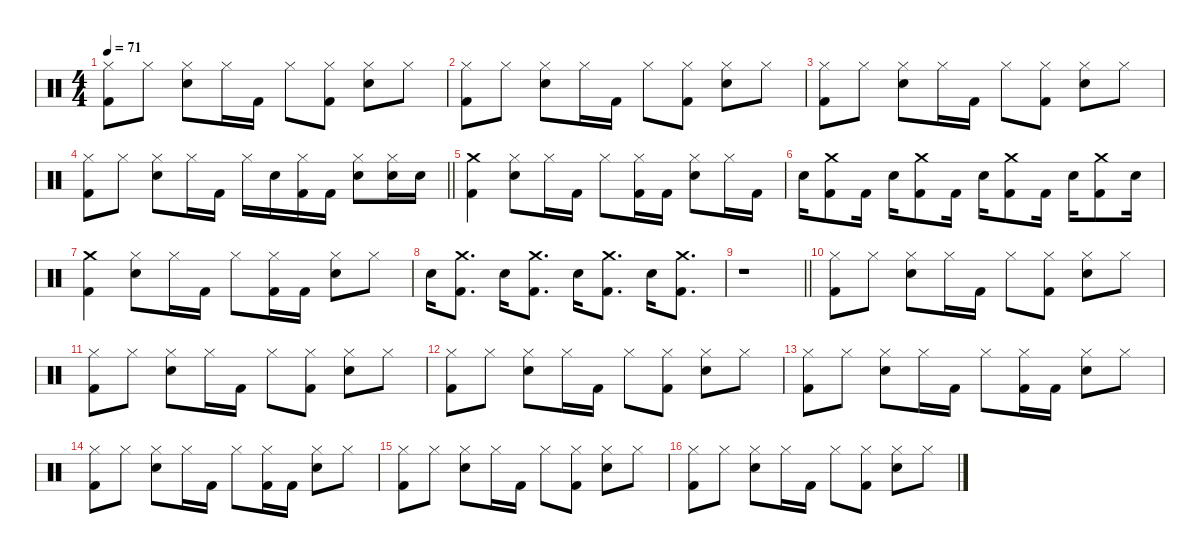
\defaultSystemsLayout 4
\hideDynamics
\bracketExtendMode nobrackets
\singleTrackTrackNamePolicy hidden
\multiTrackTrackNamePolicy hidden
\firstSystemTrackNameMode fullname
\firstSystemTrackNameOrientation horizontal
\otherSystemsTrackNameOrientation horizontal
\track ("Drums" "drm.") {instrument percussion}
\staff {score}
\articulation defaults
\ts (4 4)
\tempo 71
\clef neutral
\ks c
("Hi-Hat (closed)" "Kick (hit) 2").8{dy f beam Down} "Hi-Hat (closed)".8{beam Down} ("Hi-Hat (closed)" "Snare (hit) 2").8{beam Down} "Hi-Hat (closed)".16{beam Down} "Kick (hit) 2".16{beam Down} "Hi-Hat (closed)".8{beam Down} ("Kick (hit) 2" "Hi-Hat (closed)").8{beam Down} ("Hi-Hat (closed)" "Snare (hit) 2").8{beam Down} "Hi-Hat (closed)".8{beam Down} |
("Hi-Hat (closed)" "Kick (hit) 2").8{beam Down} "Hi-Hat (closed)".8{beam Down} ("Hi-Hat (closed)" "Snare (hit) 2").8{beam Down} "Hi-Hat (closed)".16{beam Down} "Kick (hit) 2".16{beam Down} "Hi-Hat (closed)".8{beam Down} ("Kick (hit) 2" "Hi-Hat (closed)").8{beam Down} ("Hi-Hat (closed)" "Snare (hit) 2").8{beam Down} "Hi-Hat (closed)".8{beam Down} |
("Kick (hit) 2" "Hi-Hat (closed)").8{beam Down} "Hi-Hat (closed)".8{beam Down} ("Hi-Hat (closed)" "Snare (hit) 2").8{beam Down} "Hi-Hat (closed)".16{beam Down} "Kick (hit) 2".16{beam Down} "Hi-Hat (closed)".8{beam Down} ("Kick (hit) 2" "Hi-Hat (closed)").8{beam Down} ("Snare (hit) 2" "Hi-Hat (closed)").8{beam Down} "Hi-Hat (closed)".8{beam Down} |
\barLineRight lightlight
("Hi-Hat (closed)" "Kick (hit) 2").8{beam Down} "Hi-Hat (closed)".8{beam Down} ("Hi-Hat (closed)" "Snare (hit) 2").8{beam Down} "Hi-Hat (closed)".16{beam Down} "Kick (hit) 2".16{beam Down} "Hi-Hat (closed)".16{beam Down} "Snare (hit) 2".16{beam Down} ("Hi-Hat (closed)" "Kick (hit) 2").16{beam Down} "Kick (hit) 2".16{beam Down} ("Snare (hit) 2" "Hi-Hat (closed)").8{beam Down} ("Hi-Hat (closed)" "Snare (hit) 2").16{beam Down} "Snare (hit) 2".16{beam Down} |
("Crash medium (hit)" "Kick (hit) 2").4{beam Down} ("Snare (hit) 2" "Hi-Hat (closed)").8{beam Down} "Hi-Hat (closed)".16{beam Down} "Kick (hit) 2".16{beam Down} "Hi-Hat (closed)".8{beam Down} ("Hi-Hat (closed)" "Kick (hit) 2").16{beam Down} "Kick (hit) 2".16{beam Down} ("Hi-Hat (closed)" "Snare (hit) 2").8{beam Down} "Hi-Hat (closed)".16{beam Down} "Kick (hit) 2".16{beam Down} |
"Snare (hit) 2".16{beam Down} ("Crash medium (hit)" "Kick (hit) 2").8{beam Down} "Kick (hit) 2".16{beam Down} "Snare (hit) 2".16{beam Down} ("Crash medium (hit)" "Kick (hit) 2").8{beam Down} "Kick (hit) 2".16{beam Down} "Snare (hit) 2".16{beam Down} ("Crash medium (hit)" "Kick (hit) 2").8{beam Down} "Kick (hit) 2".16{beam Down} "Snare (hit) 2".16{beam Down} ("Crash medium (hit)" "Kick (hit) 2").8{beam Down} "Snare (hit) 2".16{beam Down} |
("Crash medium (hit)" "Kick (hit) 2").4{beam Down} ("Hi-Hat (closed)" "Snare (hit) 2").8{beam Down} "Hi-Hat (closed)".16{beam Down} "Kick (hit) 2".16{beam Down} "Hi-Hat (closed)".8{beam Down} ("Kick (hit) 2" "Hi-Hat (closed)").16{beam Down} "Kick (hit) 2".16{beam Down} ("Hi-Hat (closed)" "Snare (hit) 2").8{beam Down} "Hi-Hat (closed)".8{beam Down} |
"Snare (hit) 2".16{beam Down} ("Crash medium (hit)" "Kick (hit) 2").8{d beam Down} "Snare (hit) 2".16{beam Down} ("Crash medium (hit)" "Kick (hit) 2").8{d beam Down} "Snare (hit) 2".16{beam Down} ("Crash medium (hit)" "Kick (hit) 2").8{d beam Down} "Snare (hit) 2".16{beam Down} ("Crash medium (hit)" "Kick (hit) 2").8{d beam Down} |
\barLineRight lightlight
r.1{beam Down} |
("Hi-Hat (closed)" "Kick (hit) 2").8{beam Down} "Hi-Hat (closed)".8{beam Down} ("Hi-Hat (closed)" "Snare (hit) 2").8{beam Down} "Hi-Hat (closed)".16{beam Down} "Kick (hit) 2".16{beam Down} "Hi-Hat (closed)".8{beam Down} ("Kick (hit) 2" "Hi-Hat (closed)").8{beam Down} ("Hi-Hat (closed)" "Snare (hit) 2").8{beam Down} "Hi-Hat (closed)".8{beam Down} |
("Hi-Hat (closed)" "Kick (hit) 2").8{beam Down} "Hi-Hat (closed)".8{beam Down} ("Hi-Hat (closed)" "Snare (hit) 2").8{beam Down} "Hi-Hat (closed)".16{beam Down} "Kick (hit) 2".16{beam Down} "Hi-Hat (closed)".8{beam Down} ("Kick (hit) 2" "Hi-Hat (closed)").8{beam Down} ("Hi-Hat (closed)" "Snare (hit) 2").8{beam Down} "Hi-Hat (closed)".8{beam Down} |
("Hi-Hat (closed)" "Kick (hit) 2").8{beam Down} "Hi-Hat (closed)".8{beam Down} ("Hi-Hat (closed)" "Snare (hit) 2").8{beam Down} "Hi-Hat (closed)".16{beam Down} "Kick (hit) 2".16{beam Down} "Hi-Hat (closed)".8{beam Down} ("Kick (hit) 2" "Hi-Hat (closed)").8{beam Down} ("Hi-Hat (closed)" "Snare (hit) 2").8{beam Down} "Hi-Hat (closed)".8{beam Down} |
("Hi-Hat (closed)" "Kick (hit) 2").8{beam Down} "Hi-Hat (closed)".8{beam Down} ("Hi-Hat (closed)" "Snare (hit) 2").8{beam Down} "Hi-Hat (closed)".16{beam Down} "Kick (hit) 2".16{beam Down} "Hi-Hat (closed)".8{beam Down} ("Kick (hit) 2" "Hi-Hat (closed)").16{beam Down} "Kick (hit) 2".16{beam Down} ("Hi-Hat (closed)" "Snare (hit) 2").8{beam Down} "Hi-Hat (closed)".8{beam Down} |
("Hi-Hat (closed)" "Kick (hit) 2").8{beam Down} "Hi-Hat (closed)".8{beam Down} ("Hi-Hat (closed)" "Snare (hit) 2").8{beam Down} "Hi-Hat (closed)".16{beam Down} "Kick (hit) 2".16{beam Down} "Hi-Hat (closed)".8{beam Down} ("Kick (hit) 2" "Hi-Hat (closed)").16{beam Down} "Kick (hit) 2".16{beam Down} ("Hi-Hat (closed)" "Snare (hit) 2").8{beam Down} "Hi-Hat (closed)".8{beam Down} |
("Hi-Hat (closed)" "Kick (hit) 2").8{beam Down} "Hi-Hat (closed)".8{beam Down} ("Hi-Hat (closed)" "Snare (hit) 2").8{beam Down} "Hi-Hat (closed)".16{beam Down} "Kick (hit) 2".16{beam Down} "Hi-Hat (closed)".8{beam Down} ("Kick (hit) 2" "Hi-Hat (closed)").8{beam Down} ("Hi-Hat (closed)" "Snare (hit) 2").8{beam Down} "Hi-Hat (closed)".8{beam Down} |
("Hi-Hat (closed)" "Kick (hit) 2").8{beam Down} "Hi-Hat (closed)".8{beam Down} ("Hi-Hat (closed)" "Snare (hit) 2").8{beam Down} "Hi-Hat (closed)".16{beam Down} "Kick (hit) 2".16{beam Down} "Hi-Hat (closed)".8{beam Down} ("Kick (hit) 2" "Hi-Hat (closed)").8{beam Down} ("Hi-Hat (closed)" "Snare (hit) 2").8{beam Down} "Hi-Hat (closed)".8{beam Down}
